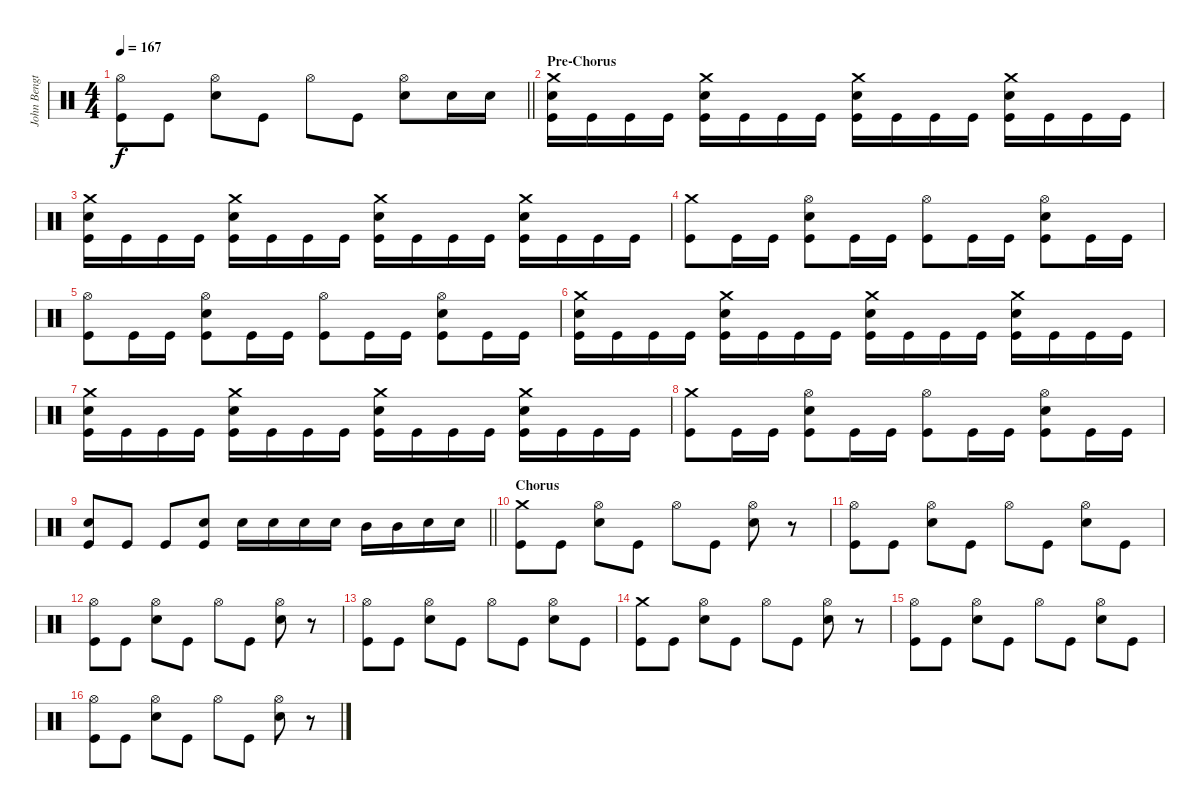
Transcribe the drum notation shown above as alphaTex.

\track ("John Bengtsson" "John Bengt") {instrument percussion}
\staff {score}
\articulation defaults
\ts (4 4)
\tempo 167
\clef neutral
\barLineRight lightlight
\ks c
("Hi-Hat (open)" "Kick (hit)").8{dy f} "Kick (hit)".8 ("Hi-Hat (open)" "Snare (hit) 2").8 "Kick (hit)".8 "Hi-Hat (open)".8 "Kick (hit)".8 ("Hi-Hat (open)" "Snare (hit) 2").8 "Snare (hit) 2".16 "Snare (hit) 2".16 |
\section ("" "Pre-Chorus")
("Crash medium (hit)" "Snare (hit) 2" "Kick (hit)").16 "Kick (hit)".16 "Kick (hit)".16 "Kick (hit)".16 ("Crash medium (hit)" "Snare (hit) 2" "Kick (hit)").16 "Kick (hit)".16 "Kick (hit)".16 "Kick (hit)".16 ("Crash medium (hit)" "Snare (hit) 2" "Kick (hit)").16 "Kick (hit)".16 "Kick (hit)".16 "Kick (hit)".16 ("Crash medium (hit)" "Snare (hit) 2" "Kick (hit)").16 "Kick (hit)".16 "Kick (hit)".16 "Kick (hit)".16 |
("Crash medium (hit)" "Snare (hit) 2" "Kick (hit)").16 "Kick (hit)".16 "Kick (hit)".16 "Kick (hit)".16 ("Crash medium (hit)" "Snare (hit) 2" "Kick (hit)").16 "Kick (hit)".16 "Kick (hit)".16 "Kick (hit)".16 ("Crash medium (hit)" "Snare (hit) 2" "Kick (hit)").16 "Kick (hit)".16 "Kick (hit)".16 "Kick (hit)".16 ("Crash medium (hit)" "Snare (hit) 2" "Kick (hit)").16 "Kick (hit)".16 "Kick (hit)".16 "Kick (hit)".16 |
("Crash medium (hit)" "Kick (hit)").8 "Kick (hit)".16 "Kick (hit)".16 ("Hi-Hat (open)" "Snare (hit) 2" "Kick (hit)").8 "Kick (hit)".16 "Kick (hit)".16 ("Hi-Hat (open)" "Kick (hit)").8 "Kick (hit)".16 "Kick (hit)".16 ("Hi-Hat (open)" "Snare (hit) 2" "Kick (hit)").8 "Kick (hit)".16 "Kick (hit)".16 |
("Hi-Hat (open)" "Kick (hit)").8 "Kick (hit)".16 "Kick (hit)".16 ("Hi-Hat (open)" "Snare (hit) 2" "Kick (hit)").8 "Kick (hit)".16 "Kick (hit)".16 ("Hi-Hat (open)" "Kick (hit)").8 "Kick (hit)".16 "Kick (hit)".16 ("Hi-Hat (open)" "Snare (hit) 2" "Kick (hit)").8 "Kick (hit)".16 "Kick (hit)".16 |
("Crash medium (hit)" "Snare (hit) 2" "Kick (hit)").16 "Kick (hit)".16 "Kick (hit)".16 "Kick (hit)".16 ("Crash medium (hit)" "Snare (hit) 2" "Kick (hit)").16 "Kick (hit)".16 "Kick (hit)".16 "Kick (hit)".16 ("Crash medium (hit)" "Snare (hit) 2" "Kick (hit)").16 "Kick (hit)".16 "Kick (hit)".16 "Kick (hit)".16 ("Crash medium (hit)" "Snare (hit) 2" "Kick (hit)").16 "Kick (hit)".16 "Kick (hit)".16 "Kick (hit)".16 |
("Crash medium (hit)" "Snare (hit) 2" "Kick (hit)").16 "Kick (hit)".16 "Kick (hit)".16 "Kick (hit)".16 ("Crash medium (hit)" "Snare (hit) 2" "Kick (hit)").16 "Kick (hit)".16 "Kick (hit)".16 "Kick (hit)".16 ("Crash medium (hit)" "Snare (hit) 2" "Kick (hit)").16 "Kick (hit)".16 "Kick (hit)".16 "Kick (hit)".16 ("Crash medium (hit)" "Snare (hit) 2" "Kick (hit)").16 "Kick (hit)".16 "Kick (hit)".16 "Kick (hit)".16 |
("Crash medium (hit)" "Kick (hit)").8 "Kick (hit)".16 "Kick (hit)".16 ("Hi-Hat (open)" "Snare (hit) 2" "Kick (hit)").8 "Kick (hit)".16 "Kick (hit)".16 ("Hi-Hat (open)" "Kick (hit)").8 "Kick (hit)".16 "Kick (hit)".16 ("Hi-Hat (open)" "Snare (hit) 2" "Kick (hit)").8 "Kick (hit)".16 "Kick (hit)".16 |
\barLineRight lightlight
("Snare (hit) 2" "Kick (hit)").8 "Kick (hit)".8 "Kick (hit)".8 ("Snare (hit) 2" "Kick (hit)").8 "Snare (hit) 2".16 "Snare (hit) 2".16 "Snare (hit) 2".16 "Snare (hit) 2".16 "Mid Tom (hit)".16 "Mid Tom (hit)".16 "Snare (hit) 2".16 "Snare (hit) 2".16 |
\section ("" "Chorus")
("Crash medium (hit)" "Kick (hit)").8 "Kick (hit)".8 ("Hi-Hat (open)" "Snare (hit) 2").8 "Kick (hit)".8 "Hi-Hat (open)".8 "Kick (hit)".8 ("Hi-Hat (open)" "Snare (hit) 2").8 r.8 |
("Hi-Hat (open)" "Kick (hit)").8 "Kick (hit)".8 ("Hi-Hat (open)" "Snare (hit) 2").8 "Kick (hit)".8 "Hi-Hat (open)".8 "Kick (hit)".8 ("Hi-Hat (open)" "Snare (hit) 2").8 "Kick (hit)".8 |
("Hi-Hat (open)" "Kick (hit)").8 "Kick (hit)".8 ("Hi-Hat (open)" "Snare (hit) 2").8 "Kick (hit)".8 "Hi-Hat (open)".8 "Kick (hit)".8 ("Hi-Hat (open)" "Snare (hit) 2").8 r.8 |
("Hi-Hat (open)" "Kick (hit)").8 "Kick (hit)".8 ("Hi-Hat (open)" "Snare (hit) 2").8 "Kick (hit)".8 "Hi-Hat (open)".8 "Kick (hit)".8 ("Hi-Hat (open)" "Snare (hit) 2").8 "Kick (hit)".8 |
("Crash medium (hit)" "Kick (hit)").8 "Kick (hit)".8 ("Hi-Hat (open)" "Snare (hit) 2").8 "Kick (hit)".8 "Hi-Hat (open)".8 "Kick (hit)".8 ("Hi-Hat (open)" "Snare (hit) 2").8 r.8 |
("Hi-Hat (open)" "Kick (hit)").8 "Kick (hit)".8 ("Hi-Hat (open)" "Snare (hit) 2").8 "Kick (hit)".8 "Hi-Hat (open)".8 "Kick (hit)".8 ("Hi-Hat (open)" "Snare (hit) 2").8 "Kick (hit)".8 |
("Hi-Hat (open)" "Kick (hit)").8 "Kick (hit)".8 ("Hi-Hat (open)" "Snare (hit) 2").8 "Kick (hit)".8 "Hi-Hat (open)".8 "Kick (hit)".8 ("Hi-Hat (open)" "Snare (hit) 2").8 r.8
